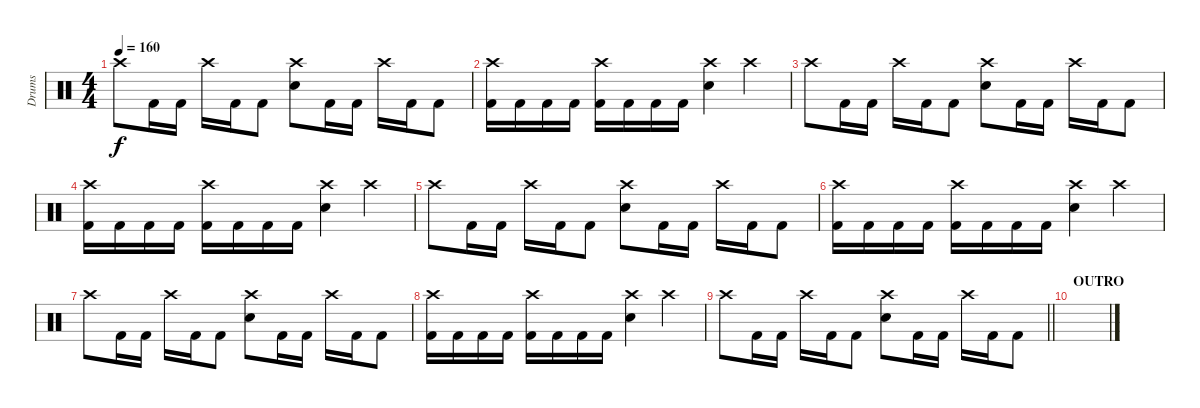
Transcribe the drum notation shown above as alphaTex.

\track ("Drums" "Drums") {instrument percussion}
\staff
\articulation defaults
\ts (4 4)
\tempo 160
\clef neutral
\ks c "Crash high (hit)".8{dy f} "Kick (hit) 2".16 "Kick (hit) 2".16 "Crash high (hit)".16 "Kick (hit) 2".16 "Kick (hit) 2".8
("Crash high (hit)" "Electric Snare (hit)").8 "Kick (hit) 2".16 "Kick (hit) 2".16 "Crash high (hit)".16 "Kick (hit) 2".16 "Kick (hit) 2".8 |
("Crash high (hit)" "Kick (hit) 2").16 "Kick (hit) 2".16 "Kick (hit) 2".16 "Kick (hit) 2".16 ("Crash high (hit)" "Kick (hit) 2").16 "Kick (hit) 2".16 "Kick (hit) 2".16 "Kick (hit) 2".16 ("Crash high (hit)" "Electric Snare (hit)").4 "Crash high (hit)".4 |
"Crash high (hit)".8 "Kick (hit) 2".16 "Kick (hit) 2".16 "Crash high (hit)".16 "Kick (hit) 2".16 "Kick (hit) 2".8 ("Crash high (hit)" "Electric Snare (hit)").8 "Kick (hit) 2".16 "Kick (hit) 2".16 "Crash high (hit)".16 "Kick (hit) 2".16 "Kick (hit) 2".8 |
("Crash high (hit)" "Kick (hit) 2").16 "Kick (hit) 2".16 "Kick (hit) 2".16 "Kick (hit) 2".16 ("Crash high (hit)" "Kick (hit) 2").16 "Kick (hit) 2".16 "Kick (hit) 2".16 "Kick (hit) 2".16 ("Crash high (hit)" "Electric Snare (hit)").4 "Crash high (hit)".4 |
"Crash high (hit)".8 "Kick (hit) 2".16 "Kick (hit) 2".16 "Crash high (hit)".16 "Kick (hit) 2".16 "Kick (hit) 2".8 ("Crash high (hit)" "Electric Snare (hit)").8 "Kick (hit) 2".16 "Kick (hit) 2".16 "Crash high (hit)".16 "Kick (hit) 2".16 "Kick (hit) 2".8 |
("Crash high (hit)" "Kick (hit) 2").16 "Kick (hit) 2".16 "Kick (hit) 2".16 "Kick (hit) 2".16 ("Crash high (hit)" "Kick (hit) 2").16 "Kick (hit) 2".16 "Kick (hit) 2".16 "Kick (hit) 2".16 ("Crash high (hit)" "Electric Snare (hit)").4 "Crash high (hit)".4 |
"Crash high (hit)".8 "Kick (hit) 2".16 "Kick (hit) 2".16 "Crash high (hit)".16 "Kick (hit) 2".16 "Kick (hit) 2".8 ("Crash high (hit)" "Electric Snare (hit)").8 "Kick (hit) 2".16 "Kick (hit) 2".16 "Crash high (hit)".16 "Kick (hit) 2".16 "Kick (hit) 2".8 |
("Crash high (hit)" "Kick (hit) 2").16 "Kick (hit) 2".16 "Kick (hit) 2".16 "Kick (hit) 2".16 ("Crash high (hit)" "Kick (hit) 2").16 "Kick (hit) 2".16 "Kick (hit) 2".16 "Kick (hit) 2".16 ("Crash high (hit)" "Electric Snare (hit)").4 "Crash high (hit)".4 |
\barLineRight lightlight "Crash high (hit)".8 "Kick (hit) 2".16 "Kick (hit) 2".16 "Crash high (hit)".16 "Kick (hit) 2".16 "Kick (hit) 2".8
("Crash high (hit)" "Electric Snare (hit)").8 "Kick (hit) 2".16 "Kick (hit) 2".16 "Crash high (hit)".16 "Kick (hit) 2".16 "Kick (hit) 2".8 |
\section ("" "OUTRO")
